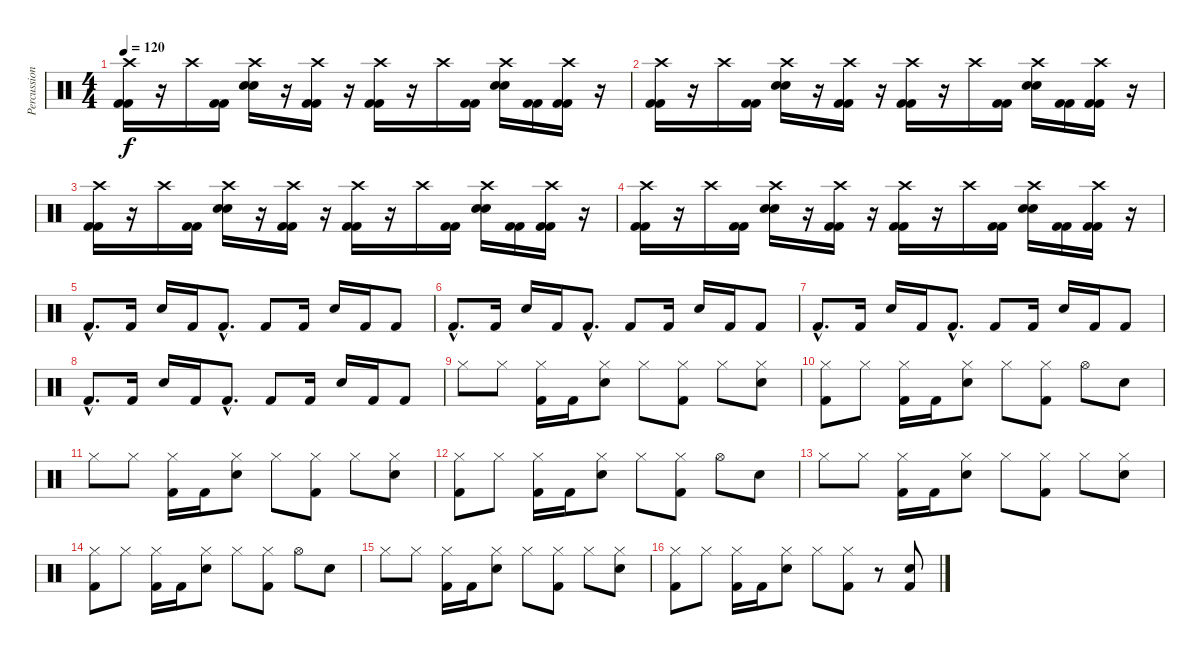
\track ("Percussions" "Percussion") {instrument percussion}
\staff {score}
\articulation defaults
\ts (4 4)
\tempo 120
\clef neutral
\ks c
("Crash high (hit)" "Kick (hit) 2" "Kick (hit) 2").16{dy f} r.16 "Crash high (hit)".16 ("Kick (hit) 2" "Kick (hit) 2").16 ("Crash high (hit)" "Electric Snare (hit)" "Electric Snare (hit)").16 r.16 ("Crash high (hit)" "Kick (hit) 2" "Kick (hit) 2").16 r.16 ("Crash high (hit)" "Kick (hit) 2" "Kick (hit) 2").16 r.16 "Crash high (hit)".16 ("Kick (hit) 2" "Kick (hit) 2").16 ("Crash high (hit)" "Electric Snare (hit)" "Electric Snare (hit)").16 ("Kick (hit) 2" "Kick (hit) 2").16 ("Crash high (hit)" "Kick (hit) 2" "Kick (hit) 2").16 r.16 |
("Crash high (hit)" "Kick (hit) 2" "Kick (hit) 2").16 r.16 "Crash high (hit)".16 ("Kick (hit) 2" "Kick (hit) 2").16 ("Crash high (hit)" "Electric Snare (hit)" "Electric Snare (hit)").16 r.16 ("Crash high (hit)" "Kick (hit) 2" "Kick (hit) 2").16 r.16 ("Crash high (hit)" "Kick (hit) 2" "Kick (hit) 2").16 r.16 "Crash high (hit)".16 ("Kick (hit) 2" "Kick (hit) 2").16 ("Crash high (hit)" "Electric Snare (hit)" "Electric Snare (hit)").16 ("Kick (hit) 2" "Kick (hit) 2").16 ("Crash high (hit)" "Kick (hit) 2" "Kick (hit) 2").16 r.16 |
("Crash high (hit)" "Kick (hit) 2" "Kick (hit) 2").16 r.16 "Crash high (hit)".16 ("Kick (hit) 2" "Kick (hit) 2").16 ("Crash high (hit)" "Electric Snare (hit)" "Electric Snare (hit)").16 r.16 ("Crash high (hit)" "Kick (hit) 2" "Kick (hit) 2").16 r.16 ("Crash high (hit)" "Kick (hit) 2" "Kick (hit) 2").16 r.16 "Crash high (hit)".16 ("Kick (hit) 2" "Kick (hit) 2").16 ("Crash high (hit)" "Electric Snare (hit)" "Electric Snare (hit)").16 ("Kick (hit) 2" "Kick (hit) 2").16 ("Crash high (hit)" "Kick (hit) 2" "Kick (hit) 2").16 r.16 |
("Crash high (hit)" "Kick (hit) 2" "Kick (hit) 2").16 r.16 "Crash high (hit)".16 ("Kick (hit) 2" "Kick (hit) 2").16 ("Crash high (hit)" "Electric Snare (hit)" "Electric Snare (hit)").16 r.16 ("Crash high (hit)" "Kick (hit) 2" "Kick (hit) 2").16 r.16 ("Crash high (hit)" "Kick (hit) 2" "Kick (hit) 2").16 r.16 "Crash high (hit)".16 ("Kick (hit) 2" "Kick (hit) 2").16 ("Crash high (hit)" "Electric Snare (hit)" "Electric Snare (hit)").16 ("Kick (hit) 2" "Kick (hit) 2").16 ("Crash high (hit)" "Kick (hit) 2" "Kick (hit) 2").16 r.16 |
"Kick (hit) 2"{hac}.8{d} "Kick (hit) 2".16 "Electric Snare (hit)".16 "Kick (hit) 2".16 "Kick (hit) 2"{hac}.8{d} "Kick (hit) 2".8 "Kick (hit) 2".16 "Electric Snare (hit)".16 "Kick (hit) 2".16 "Kick (hit) 2".8 |
"Kick (hit) 2"{hac}.8{d} "Kick (hit) 2".16 "Electric Snare (hit)".16 "Kick (hit) 2".16 "Kick (hit) 2"{hac}.8{d} "Kick (hit) 2".8 "Kick (hit) 2".16 "Electric Snare (hit)".16 "Kick (hit) 2".16 "Kick (hit) 2".8 |
"Kick (hit) 2"{hac}.8{d} "Kick (hit) 2".16 "Electric Snare (hit)".16 "Kick (hit) 2".16 "Kick (hit) 2"{hac}.8{d} "Kick (hit) 2".8 "Kick (hit) 2".16 "Electric Snare (hit)".16 "Kick (hit) 2".16 "Kick (hit) 2".8 |
"Kick (hit) 2"{hac}.8{d} "Kick (hit) 2".16 "Electric Snare (hit)".16 "Kick (hit) 2".16 "Kick (hit) 2"{hac}.8{d} "Kick (hit) 2".8 "Kick (hit) 2".16 "Electric Snare (hit)".16 "Kick (hit) 2".16 "Kick (hit) 2".8 |
"Hi-Hat (closed)".8 "Hi-Hat (closed)".8 ("Hi-Hat (closed)" "Kick (hit) 2").16 "Kick (hit) 2".16 ("Hi-Hat (closed)" "Electric Snare (hit)").8 "Hi-Hat (closed)".8 ("Hi-Hat (closed)" "Kick (hit) 2").8 "Hi-Hat (closed)".8 ("Hi-Hat (closed)" "Electric Snare (hit)").8 |
("Hi-Hat (closed)" "Kick (hit) 2").8 "Hi-Hat (closed)".8 ("Hi-Hat (closed)" "Kick (hit) 2").16 "Kick (hit) 2".16 ("Hi-Hat (closed)" "Electric Snare (hit)").8 "Hi-Hat (closed)".8 ("Hi-Hat (closed)" "Kick (hit) 2").8 "Hi-Hat (open)".8 "Electric Snare (hit)".8 |
"Hi-Hat (closed)".8 "Hi-Hat (closed)".8 ("Hi-Hat (closed)" "Kick (hit) 2").16 "Kick (hit) 2".16 ("Hi-Hat (closed)" "Electric Snare (hit)").8 "Hi-Hat (closed)".8 ("Hi-Hat (closed)" "Kick (hit) 2").8 "Hi-Hat (closed)".8 ("Hi-Hat (closed)" "Electric Snare (hit)").8 |
("Hi-Hat (closed)" "Kick (hit) 2").8 "Hi-Hat (closed)".8 ("Hi-Hat (closed)" "Kick (hit) 2").16 "Kick (hit) 2".16 ("Hi-Hat (closed)" "Electric Snare (hit)").8 "Hi-Hat (closed)".8 ("Hi-Hat (closed)" "Kick (hit) 2").8 "Hi-Hat (open)".8 "Electric Snare (hit)".8 |
"Hi-Hat (closed)".8 "Hi-Hat (closed)".8 ("Hi-Hat (closed)" "Kick (hit) 2").16 "Kick (hit) 2".16 ("Hi-Hat (closed)" "Electric Snare (hit)").8 "Hi-Hat (closed)".8 ("Hi-Hat (closed)" "Kick (hit) 2").8 "Hi-Hat (closed)".8 ("Hi-Hat (closed)" "Electric Snare (hit)").8 |
("Hi-Hat (closed)" "Kick (hit) 2").8 "Hi-Hat (closed)".8 ("Hi-Hat (closed)" "Kick (hit) 2").16 "Kick (hit) 2".16 ("Hi-Hat (closed)" "Electric Snare (hit)").8 "Hi-Hat (closed)".8 ("Hi-Hat (closed)" "Kick (hit) 2").8 "Hi-Hat (open)".8 "Electric Snare (hit)".8 |
"Hi-Hat (closed)".8 "Hi-Hat (closed)".8 ("Hi-Hat (closed)" "Kick (hit) 2").16 "Kick (hit) 2".16 ("Hi-Hat (closed)" "Electric Snare (hit)").8 "Hi-Hat (closed)".8 ("Hi-Hat (closed)" "Kick (hit) 2").8 "Hi-Hat (closed)".8 ("Hi-Hat (closed)" "Electric Snare (hit)").8 |
("Hi-Hat (closed)" "Kick (hit) 2").8 "Hi-Hat (closed)".8 ("Hi-Hat (closed)" "Kick (hit) 2").16 "Kick (hit) 2".16 ("Hi-Hat (closed)" "Electric Snare (hit)").8 "Hi-Hat (closed)".8 ("Hi-Hat (closed)" "Kick (hit) 2").8 r.8 ("Electric Snare (hit)" "Kick (hit) 2").8
